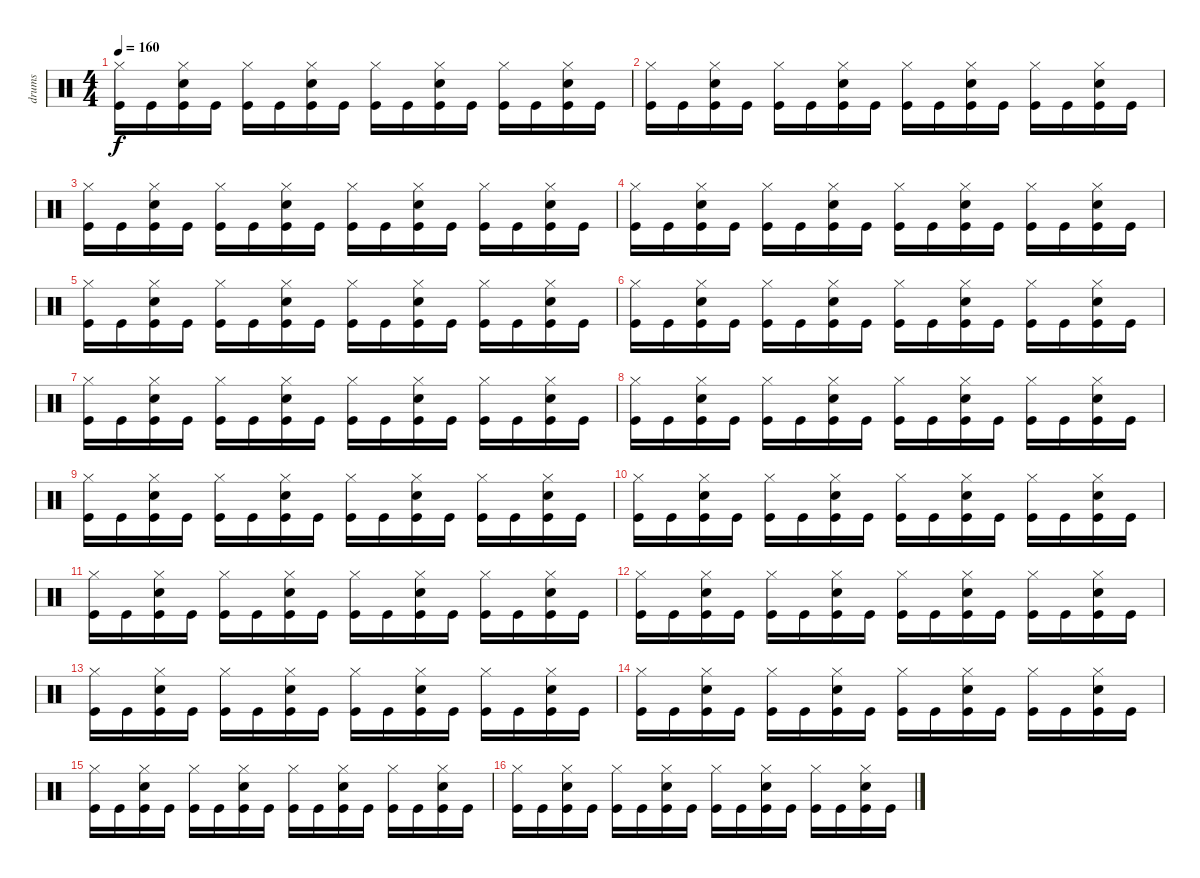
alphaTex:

\track ("drums" "drums") {instrument percussion}
\staff {score}
\articulation defaults
\ts (4 4)
\tempo 160
\clef neutral
\ks c
("Kick (hit)" "Hi-Hat (closed)").16{dy f} "Kick (hit)".16 ("Kick (hit)" "Hi-Hat (closed)" "Snare (hit) 2").16 "Kick (hit)".16 ("Kick (hit)" "Hi-Hat (closed)").16 "Kick (hit)".16 ("Kick (hit)" "Hi-Hat (closed)" "Snare (hit) 2").16 "Kick (hit)".16 ("Kick (hit)" "Hi-Hat (closed)").16 "Kick (hit)".16 ("Kick (hit)" "Hi-Hat (closed)" "Snare (hit) 2").16 "Kick (hit)".16 ("Kick (hit)" "Hi-Hat (closed)").16 "Kick (hit)".16 ("Kick (hit)" "Hi-Hat (closed)" "Snare (hit) 2").16 "Kick (hit)".16 |
("Kick (hit)" "Hi-Hat (closed)").16 "Kick (hit)".16 ("Kick (hit)" "Hi-Hat (closed)" "Snare (hit) 2").16 "Kick (hit)".16 ("Kick (hit)" "Hi-Hat (closed)").16 "Kick (hit)".16 ("Kick (hit)" "Hi-Hat (closed)" "Snare (hit) 2").16 "Kick (hit)".16 ("Kick (hit)" "Hi-Hat (closed)").16 "Kick (hit)".16 ("Kick (hit)" "Hi-Hat (closed)" "Snare (hit) 2").16 "Kick (hit)".16 ("Kick (hit)" "Hi-Hat (closed)").16 "Kick (hit)".16 ("Kick (hit)" "Hi-Hat (closed)" "Snare (hit) 2").16 "Kick (hit)".16 |
("Kick (hit)" "Hi-Hat (closed)").16 "Kick (hit)".16 ("Kick (hit)" "Hi-Hat (closed)" "Snare (hit) 2").16 "Kick (hit)".16 ("Kick (hit)" "Hi-Hat (closed)").16 "Kick (hit)".16 ("Kick (hit)" "Hi-Hat (closed)" "Snare (hit) 2").16 "Kick (hit)".16 ("Kick (hit)" "Hi-Hat (closed)").16 "Kick (hit)".16 ("Kick (hit)" "Hi-Hat (closed)" "Snare (hit) 2").16 "Kick (hit)".16 ("Kick (hit)" "Hi-Hat (closed)").16 "Kick (hit)".16 ("Kick (hit)" "Hi-Hat (closed)" "Snare (hit) 2").16 "Kick (hit)".16 |
("Kick (hit)" "Hi-Hat (closed)").16 "Kick (hit)".16 ("Kick (hit)" "Hi-Hat (closed)" "Snare (hit) 2").16 "Kick (hit)".16 ("Kick (hit)" "Hi-Hat (closed)").16 "Kick (hit)".16 ("Kick (hit)" "Hi-Hat (closed)" "Snare (hit) 2").16 "Kick (hit)".16 ("Kick (hit)" "Hi-Hat (closed)").16 "Kick (hit)".16 ("Kick (hit)" "Hi-Hat (closed)" "Snare (hit) 2").16 "Kick (hit)".16 ("Kick (hit)" "Hi-Hat (closed)").16 "Kick (hit)".16 ("Kick (hit)" "Hi-Hat (closed)" "Snare (hit) 2").16 "Kick (hit)".16 |
("Kick (hit)" "Hi-Hat (closed)").16 "Kick (hit)".16 ("Kick (hit)" "Hi-Hat (closed)" "Snare (hit) 2").16 "Kick (hit)".16 ("Kick (hit)" "Hi-Hat (closed)").16 "Kick (hit)".16 ("Kick (hit)" "Hi-Hat (closed)" "Snare (hit) 2").16 "Kick (hit)".16 ("Kick (hit)" "Hi-Hat (closed)").16 "Kick (hit)".16 ("Kick (hit)" "Hi-Hat (closed)" "Snare (hit) 2").16 "Kick (hit)".16 ("Kick (hit)" "Hi-Hat (closed)").16 "Kick (hit)".16 ("Kick (hit)" "Hi-Hat (closed)" "Snare (hit) 2").16 "Kick (hit)".16 |
("Kick (hit)" "Hi-Hat (closed)").16 "Kick (hit)".16 ("Kick (hit)" "Hi-Hat (closed)" "Snare (hit) 2").16 "Kick (hit)".16 ("Kick (hit)" "Hi-Hat (closed)").16 "Kick (hit)".16 ("Kick (hit)" "Hi-Hat (closed)" "Snare (hit) 2").16 "Kick (hit)".16 ("Kick (hit)" "Hi-Hat (closed)").16 "Kick (hit)".16 ("Kick (hit)" "Hi-Hat (closed)" "Snare (hit) 2").16 "Kick (hit)".16 ("Kick (hit)" "Hi-Hat (closed)").16 "Kick (hit)".16 ("Kick (hit)" "Hi-Hat (closed)" "Snare (hit) 2").16 "Kick (hit)".16 |
("Kick (hit)" "Hi-Hat (closed)").16 "Kick (hit)".16 ("Kick (hit)" "Hi-Hat (closed)" "Snare (hit) 2").16 "Kick (hit)".16 ("Kick (hit)" "Hi-Hat (closed)").16 "Kick (hit)".16 ("Kick (hit)" "Hi-Hat (closed)" "Snare (hit) 2").16 "Kick (hit)".16 ("Kick (hit)" "Hi-Hat (closed)").16 "Kick (hit)".16 ("Kick (hit)" "Hi-Hat (closed)" "Snare (hit) 2").16 "Kick (hit)".16 ("Kick (hit)" "Hi-Hat (closed)").16 "Kick (hit)".16 ("Kick (hit)" "Hi-Hat (closed)" "Snare (hit) 2").16 "Kick (hit)".16 |
("Kick (hit)" "Hi-Hat (closed)").16 "Kick (hit)".16 ("Kick (hit)" "Hi-Hat (closed)" "Snare (hit) 2").16 "Kick (hit)".16 ("Kick (hit)" "Hi-Hat (closed)").16 "Kick (hit)".16 ("Kick (hit)" "Hi-Hat (closed)" "Snare (hit) 2").16 "Kick (hit)".16 ("Kick (hit)" "Hi-Hat (closed)").16 "Kick (hit)".16 ("Kick (hit)" "Hi-Hat (closed)" "Snare (hit) 2").16 "Kick (hit)".16 ("Kick (hit)" "Hi-Hat (closed)").16 "Kick (hit)".16 ("Kick (hit)" "Hi-Hat (closed)" "Snare (hit) 2").16 "Kick (hit)".16 |
("Kick (hit)" "Hi-Hat (closed)").16 "Kick (hit)".16 ("Kick (hit)" "Hi-Hat (closed)" "Snare (hit) 2").16 "Kick (hit)".16 ("Kick (hit)" "Hi-Hat (closed)").16 "Kick (hit)".16 ("Kick (hit)" "Hi-Hat (closed)" "Snare (hit) 2").16 "Kick (hit)".16 ("Kick (hit)" "Hi-Hat (closed)").16 "Kick (hit)".16 ("Kick (hit)" "Hi-Hat (closed)" "Snare (hit) 2").16 "Kick (hit)".16 ("Kick (hit)" "Hi-Hat (closed)").16 "Kick (hit)".16 ("Kick (hit)" "Hi-Hat (closed)" "Snare (hit) 2").16 "Kick (hit)".16 |
("Kick (hit)" "Hi-Hat (closed)").16 "Kick (hit)".16 ("Kick (hit)" "Hi-Hat (closed)" "Snare (hit) 2").16 "Kick (hit)".16 ("Kick (hit)" "Hi-Hat (closed)").16 "Kick (hit)".16 ("Kick (hit)" "Hi-Hat (closed)" "Snare (hit) 2").16 "Kick (hit)".16 ("Kick (hit)" "Hi-Hat (closed)").16 "Kick (hit)".16 ("Kick (hit)" "Hi-Hat (closed)" "Snare (hit) 2").16 "Kick (hit)".16 ("Kick (hit)" "Hi-Hat (closed)").16 "Kick (hit)".16 ("Kick (hit)" "Hi-Hat (closed)" "Snare (hit) 2").16 "Kick (hit)".16 |
("Kick (hit)" "Hi-Hat (closed)").16 "Kick (hit)".16 ("Kick (hit)" "Hi-Hat (closed)" "Snare (hit) 2").16 "Kick (hit)".16 ("Kick (hit)" "Hi-Hat (closed)").16 "Kick (hit)".16 ("Kick (hit)" "Hi-Hat (closed)" "Snare (hit) 2").16 "Kick (hit)".16 ("Kick (hit)" "Hi-Hat (closed)").16 "Kick (hit)".16 ("Kick (hit)" "Hi-Hat (closed)" "Snare (hit) 2").16 "Kick (hit)".16 ("Kick (hit)" "Hi-Hat (closed)").16 "Kick (hit)".16 ("Kick (hit)" "Hi-Hat (closed)" "Snare (hit) 2").16 "Kick (hit)".16 |
("Kick (hit)" "Hi-Hat (closed)").16 "Kick (hit)".16 ("Kick (hit)" "Hi-Hat (closed)" "Snare (hit) 2").16 "Kick (hit)".16 ("Kick (hit)" "Hi-Hat (closed)").16 "Kick (hit)".16 ("Kick (hit)" "Hi-Hat (closed)" "Snare (hit) 2").16 "Kick (hit)".16 ("Kick (hit)" "Hi-Hat (closed)").16 "Kick (hit)".16 ("Kick (hit)" "Hi-Hat (closed)" "Snare (hit) 2").16 "Kick (hit)".16 ("Kick (hit)" "Hi-Hat (closed)").16 "Kick (hit)".16 ("Kick (hit)" "Hi-Hat (closed)" "Snare (hit) 2").16 "Kick (hit)".16 |
("Kick (hit)" "Hi-Hat (closed)").16 "Kick (hit)".16 ("Kick (hit)" "Hi-Hat (closed)" "Snare (hit) 2").16 "Kick (hit)".16 ("Kick (hit)" "Hi-Hat (closed)").16 "Kick (hit)".16 ("Kick (hit)" "Hi-Hat (closed)" "Snare (hit) 2").16 "Kick (hit)".16 ("Kick (hit)" "Hi-Hat (closed)").16 "Kick (hit)".16 ("Kick (hit)" "Hi-Hat (closed)" "Snare (hit) 2").16 "Kick (hit)".16 ("Kick (hit)" "Hi-Hat (closed)").16 "Kick (hit)".16 ("Kick (hit)" "Hi-Hat (closed)" "Snare (hit) 2").16 "Kick (hit)".16 |
("Kick (hit)" "Hi-Hat (closed)").16 "Kick (hit)".16 ("Kick (hit)" "Hi-Hat (closed)" "Snare (hit) 2").16 "Kick (hit)".16 ("Kick (hit)" "Hi-Hat (closed)").16 "Kick (hit)".16 ("Kick (hit)" "Hi-Hat (closed)" "Snare (hit) 2").16 "Kick (hit)".16 ("Kick (hit)" "Hi-Hat (closed)").16 "Kick (hit)".16 ("Kick (hit)" "Hi-Hat (closed)" "Snare (hit) 2").16 "Kick (hit)".16 ("Kick (hit)" "Hi-Hat (closed)").16 "Kick (hit)".16 ("Kick (hit)" "Hi-Hat (closed)" "Snare (hit) 2").16 "Kick (hit)".16 |
("Kick (hit)" "Hi-Hat (closed)").16 "Kick (hit)".16 ("Kick (hit)" "Hi-Hat (closed)" "Snare (hit) 2").16 "Kick (hit)".16 ("Kick (hit)" "Hi-Hat (closed)").16 "Kick (hit)".16 ("Kick (hit)" "Hi-Hat (closed)" "Snare (hit) 2").16 "Kick (hit)".16 ("Kick (hit)" "Hi-Hat (closed)").16 "Kick (hit)".16 ("Kick (hit)" "Hi-Hat (closed)" "Snare (hit) 2").16 "Kick (hit)".16 ("Kick (hit)" "Hi-Hat (closed)").16 "Kick (hit)".16 ("Kick (hit)" "Hi-Hat (closed)" "Snare (hit) 2").16 "Kick (hit)".16 |
("Kick (hit)" "Hi-Hat (closed)").16 "Kick (hit)".16 ("Kick (hit)" "Hi-Hat (closed)" "Snare (hit) 2").16 "Kick (hit)".16 ("Kick (hit)" "Hi-Hat (closed)").16 "Kick (hit)".16 ("Kick (hit)" "Hi-Hat (closed)" "Snare (hit) 2").16 "Kick (hit)".16 ("Kick (hit)" "Hi-Hat (closed)").16 "Kick (hit)".16 ("Kick (hit)" "Hi-Hat (closed)" "Snare (hit) 2").16 "Kick (hit)".16 ("Kick (hit)" "Hi-Hat (closed)").16 "Kick (hit)".16 ("Kick (hit)" "Hi-Hat (closed)" "Snare (hit) 2").16 "Kick (hit)".16
